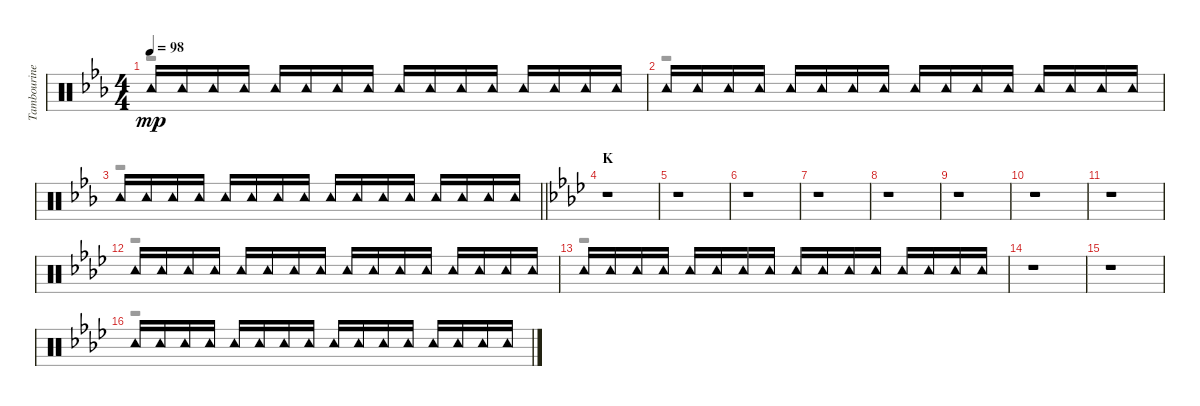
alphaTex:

\track ("Tambourine" "Tambourine") {instrument percussion}
\staff {score}
\articulation defaults
\voice
\ts (4 4)
\tempo 98
\clef neutral
\ks eb "Tambourine (hit)".16{dy mp} "Tambourine (hit)".16 "Tambourine (hit)".16 "Tambourine (hit)".16 "Tambourine (hit)".16 "Tambourine (hit)".16 "Tambourine (hit)".16 "Tambourine (hit)".16 "Tambourine (hit)".16 "Tambourine (hit)".16 "Tambourine (hit)".16 "Tambourine (hit)".16 "Tambourine (hit)".16 "Tambourine (hit)".16 "Tambourine (hit)".16 "Tambourine (hit)".16
|
"Tambourine (hit)".16 "Tambourine (hit)".16 "Tambourine (hit)".16 "Tambourine (hit)".16 "Tambourine (hit)".16 "Tambourine (hit)".16 "Tambourine (hit)".16 "Tambourine (hit)".16 "Tambourine (hit)".16 "Tambourine (hit)".16 "Tambourine (hit)".16 "Tambourine (hit)".16 "Tambourine (hit)".16 "Tambourine (hit)".16 "Tambourine (hit)".16 "Tambourine (hit)".16 |
\barLineRight lightlight "Tambourine (hit)".16 "Tambourine (hit)".16 "Tambourine (hit)".16 "Tambourine (hit)".16 "Tambourine (hit)".16 "Tambourine (hit)".16 "Tambourine (hit)".16 "Tambourine (hit)".16 "Tambourine (hit)".16 "Tambourine (hit)".16 "Tambourine (hit)".16 "Tambourine (hit)".16 "Tambourine (hit)".16 "Tambourine (hit)".16 "Tambourine (hit)".16 "Tambourine (hit)".16
|
\section ("" "K")
\ks ab
r.1 |
r.1 |
r.1 |
r.1 |
r.1 |
r.1 |
r.1 |
r.1 |
"Tambourine (hit)".16 "Tambourine (hit)".16 "Tambourine (hit)".16 "Tambourine (hit)".16 "Tambourine (hit)".16 "Tambourine (hit)".16 "Tambourine (hit)".16 "Tambourine (hit)".16 "Tambourine (hit)".16 "Tambourine (hit)".16 "Tambourine (hit)".16 "Tambourine (hit)".16 "Tambourine (hit)".16 "Tambourine (hit)".16 "Tambourine (hit)".16 "Tambourine (hit)".16 |
"Tambourine (hit)".16 "Tambourine (hit)".16 "Tambourine (hit)".16 "Tambourine (hit)".16 "Tambourine (hit)".16 "Tambourine (hit)".16 "Tambourine (hit)".16 "Tambourine (hit)".16 "Tambourine (hit)".16 "Tambourine (hit)".16 "Tambourine (hit)".16 "Tambourine (hit)".16 "Tambourine (hit)".16 "Tambourine (hit)".16 "Tambourine (hit)".16 "Tambourine (hit)".16 |
r.1 |
r.1 |
"Tambourine (hit)".16 "Tambourine (hit)".16 "Tambourine (hit)".16 "Tambourine (hit)".16 "Tambourine (hit)".16 "Tambourine (hit)".16 "Tambourine (hit)".16 "Tambourine (hit)".16 "Tambourine (hit)".16 "Tambourine (hit)".16 "Tambourine (hit)".16 "Tambourine (hit)".16 "Tambourine (hit)".16 "Tambourine (hit)".16 "Tambourine (hit)".16 "Tambourine (hit)".16
\voice
\clef neutral
\ottava regular
\simile none
\ks eb
r.1{dy f} |
r.1 |
\barLineRight lightlight
r.1 |
\ks ab
r.1 |
r.1 |
r.1 |
r.1 |
r.1 |
r.1 |
r.1 |
r.1 |
r.1 |
r.1 |
r.1 |
r.1 |
r.1
